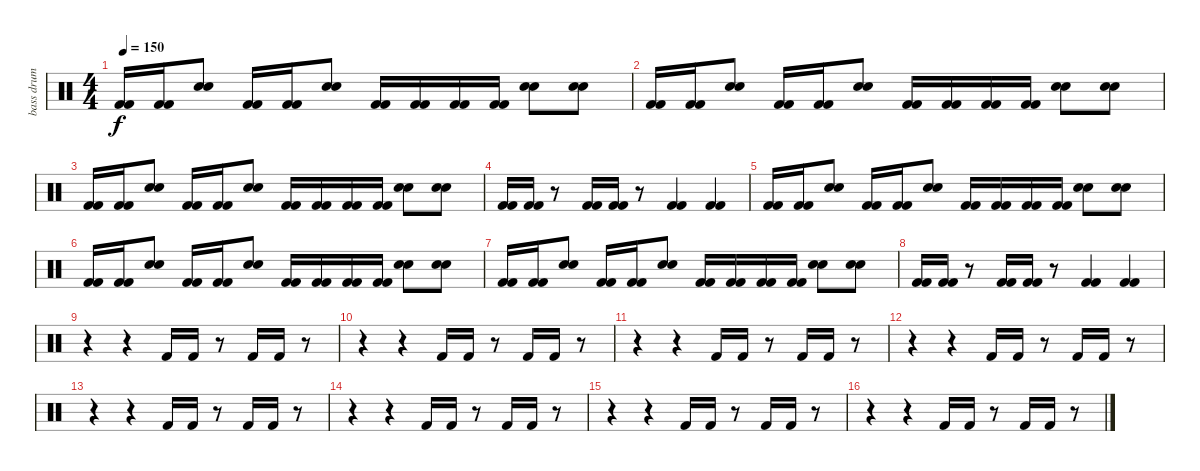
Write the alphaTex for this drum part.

\track ("bass drum" "bass drum") {instrument percussion}
\staff {score}
\articulation defaults
\ts (4 4)
\tempo 150
\clef neutral
\ks c
("Kick (hit) 2" "Kick (hit) 2").16{dy f} ("Kick (hit) 2" "Kick (hit) 2").16 ("Snare (hit) 2" "Snare (hit) 2").8 ("Kick (hit) 2" "Kick (hit) 2").16 ("Kick (hit) 2" "Kick (hit) 2").16 ("Snare (hit) 2" "Snare (hit) 2").8 ("Kick (hit) 2" "Kick (hit) 2").16 ("Kick (hit) 2" "Kick (hit) 2").16 ("Kick (hit) 2" "Kick (hit) 2").16 ("Kick (hit) 2" "Kick (hit) 2").16 ("Snare (hit) 2" "Snare (hit) 2").8 ("Snare (hit) 2" "Snare (hit) 2").8 |
("Kick (hit) 2" "Kick (hit) 2").16 ("Kick (hit) 2" "Kick (hit) 2").16 ("Snare (hit) 2" "Snare (hit) 2").8 ("Kick (hit) 2" "Kick (hit) 2").16 ("Kick (hit) 2" "Kick (hit) 2").16 ("Snare (hit) 2" "Snare (hit) 2").8 ("Kick (hit) 2" "Kick (hit) 2").16 ("Kick (hit) 2" "Kick (hit) 2").16 ("Kick (hit) 2" "Kick (hit) 2").16 ("Kick (hit) 2" "Kick (hit) 2").16 ("Snare (hit) 2" "Snare (hit) 2").8 ("Snare (hit) 2" "Snare (hit) 2").8 |
("Kick (hit) 2" "Kick (hit) 2").16 ("Kick (hit) 2" "Kick (hit) 2").16 ("Snare (hit) 2" "Snare (hit) 2").8 ("Kick (hit) 2" "Kick (hit) 2").16 ("Kick (hit) 2" "Kick (hit) 2").16 ("Snare (hit) 2" "Snare (hit) 2").8 ("Kick (hit) 2" "Kick (hit) 2").16 ("Kick (hit) 2" "Kick (hit) 2").16 ("Kick (hit) 2" "Kick (hit) 2").16 ("Kick (hit) 2" "Kick (hit) 2").16 ("Snare (hit) 2" "Snare (hit) 2").8 ("Snare (hit) 2" "Snare (hit) 2").8 |
("Kick (hit) 2" "Kick (hit) 2").16 ("Kick (hit) 2" "Kick (hit) 2").16 r.8 ("Kick (hit) 2" "Kick (hit) 2").16 ("Kick (hit) 2" "Kick (hit) 2").16 r.8 ("Kick (hit) 2" "Kick (hit) 2").4 ("Kick (hit) 2" "Kick (hit) 2").4 |
("Kick (hit) 2" "Kick (hit) 2").16 ("Kick (hit) 2" "Kick (hit) 2").16 ("Snare (hit) 2" "Snare (hit) 2").8 ("Kick (hit) 2" "Kick (hit) 2").16 ("Kick (hit) 2" "Kick (hit) 2").16 ("Snare (hit) 2" "Snare (hit) 2").8 ("Kick (hit) 2" "Kick (hit) 2").16 ("Kick (hit) 2" "Kick (hit) 2").16 ("Kick (hit) 2" "Kick (hit) 2").16 ("Kick (hit) 2" "Kick (hit) 2").16 ("Snare (hit) 2" "Snare (hit) 2").8 ("Snare (hit) 2" "Snare (hit) 2").8 |
("Kick (hit) 2" "Kick (hit) 2").16 ("Kick (hit) 2" "Kick (hit) 2").16 ("Snare (hit) 2" "Snare (hit) 2").8 ("Kick (hit) 2" "Kick (hit) 2").16 ("Kick (hit) 2" "Kick (hit) 2").16 ("Snare (hit) 2" "Snare (hit) 2").8 ("Kick (hit) 2" "Kick (hit) 2").16 ("Kick (hit) 2" "Kick (hit) 2").16 ("Kick (hit) 2" "Kick (hit) 2").16 ("Kick (hit) 2" "Kick (hit) 2").16 ("Snare (hit) 2" "Snare (hit) 2").8 ("Snare (hit) 2" "Snare (hit) 2").8 |
("Kick (hit) 2" "Kick (hit) 2").16 ("Kick (hit) 2" "Kick (hit) 2").16 ("Snare (hit) 2" "Snare (hit) 2").8 ("Kick (hit) 2" "Kick (hit) 2").16 ("Kick (hit) 2" "Kick (hit) 2").16 ("Snare (hit) 2" "Snare (hit) 2").8 ("Kick (hit) 2" "Kick (hit) 2").16 ("Kick (hit) 2" "Kick (hit) 2").16 ("Kick (hit) 2" "Kick (hit) 2").16 ("Kick (hit) 2" "Kick (hit) 2").16 ("Snare (hit) 2" "Snare (hit) 2").8 ("Snare (hit) 2" "Snare (hit) 2").8 |
("Kick (hit) 2" "Kick (hit) 2").16 ("Kick (hit) 2" "Kick (hit) 2").16 r.8 ("Kick (hit) 2" "Kick (hit) 2").16 ("Kick (hit) 2" "Kick (hit) 2").16 r.8 ("Kick (hit) 2" "Kick (hit) 2").4 ("Kick (hit) 2" "Kick (hit) 2").4 |
r.4 r.4 "Kick (hit) 2".16 "Kick (hit) 2".16 r.8 "Kick (hit) 2".16 "Kick (hit) 2".16 r.8 |
r.4 r.4 "Kick (hit) 2".16 "Kick (hit) 2".16 r.8 "Kick (hit) 2".16 "Kick (hit) 2".16 r.8 |
r.4 r.4 "Kick (hit) 2".16 "Kick (hit) 2".16 r.8 "Kick (hit) 2".16 "Kick (hit) 2".16 r.8 |
r.4 r.4 "Kick (hit) 2".16 "Kick (hit) 2".16 r.8 "Kick (hit) 2".16 "Kick (hit) 2".16 r.8 |
r.4 r.4 "Kick (hit) 2".16 "Kick (hit) 2".16 r.8 "Kick (hit) 2".16 "Kick (hit) 2".16 r.8 |
r.4 r.4 "Kick (hit) 2".16 "Kick (hit) 2".16 r.8 "Kick (hit) 2".16 "Kick (hit) 2".16 r.8 |
r.4 r.4 "Kick (hit) 2".16 "Kick (hit) 2".16 r.8 "Kick (hit) 2".16 "Kick (hit) 2".16 r.8 |
r.4 r.4 "Kick (hit) 2".16 "Kick (hit) 2".16 r.8 "Kick (hit) 2".16 "Kick (hit) 2".16 r.8
